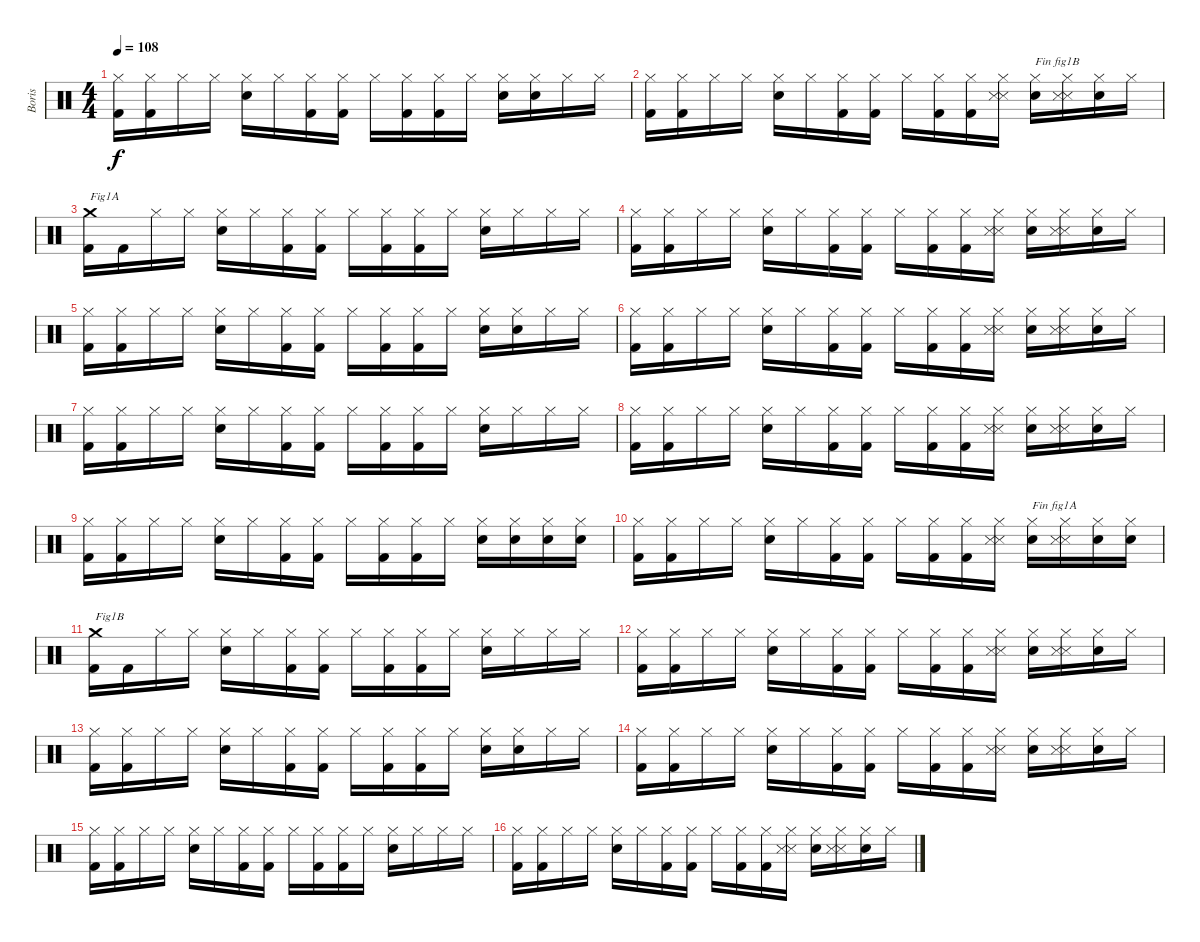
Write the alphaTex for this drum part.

\track ("Boris" "Boris") {instrument percussion}
\staff {score}
\articulation defaults
\ts (4 4)
\tempo 108
\clef neutral
\ks c
("Kick (hit) 2" "Hi-Hat (closed)").16{dy f} ("Kick (hit) 2" "Hi-Hat (closed)").16 "Hi-Hat (closed)".16 "Hi-Hat (closed)".16 ("Electric Snare (hit)" "Hi-Hat (closed)").16 "Hi-Hat (closed)".16 ("Kick (hit) 2" "Hi-Hat (closed)").16 ("Kick (hit) 2" "Hi-Hat (closed)").16 "Hi-Hat (closed)".16 ("Kick (hit) 2" "Hi-Hat (closed)").16 ("Kick (hit) 2" "Hi-Hat (closed)").16 "Hi-Hat (closed)".16 ("Electric Snare (hit)" "Hi-Hat (closed)").16 ("Electric Snare (hit)" "Hi-Hat (closed)").16 "Hi-Hat (closed)".16 "Hi-Hat (closed)".16 |
("Kick (hit) 2" "Hi-Hat (closed)").16 ("Kick (hit) 2" "Hi-Hat (closed)").16 "Hi-Hat (closed)".16 "Hi-Hat (closed)".16 ("Electric Snare (hit)" "Hi-Hat (closed)").16 "Hi-Hat (closed)".16 ("Kick (hit) 2" "Hi-Hat (closed)").16 ("Kick (hit) 2" "Hi-Hat (closed)").16 "Hi-Hat (closed)".16 ("Kick (hit) 2" "Hi-Hat (closed)").16 ("Kick (hit) 2" "Hi-Hat (closed)").16 ("Metronome (hit)" "Snare (side stick) 3" "Hi-Hat (closed)").16 ("Electric Snare (hit)" "Hi-Hat (closed)").16{txt "Fin fig1B"} ("Metronome (hit)" "Snare (side stick) 3" "Hi-Hat (closed)").16 ("Electric Snare (hit)" "Hi-Hat (closed)").16 "Hi-Hat (closed)".16 |
("Kick (hit) 2" "Crash medium (hit)").16{txt "Fig1A"} "Kick (hit) 2".16 "Hi-Hat (closed)".16 "Hi-Hat (closed)".16 ("Electric Snare (hit)" "Hi-Hat (closed)").16 "Hi-Hat (closed)".16 ("Kick (hit) 2" "Hi-Hat (closed)").16 ("Kick (hit) 2" "Hi-Hat (closed)").16 "Hi-Hat (closed)".16 ("Kick (hit) 2" "Hi-Hat (closed)").16 ("Kick (hit) 2" "Hi-Hat (closed)").16 "Hi-Hat (closed)".16 ("Electric Snare (hit)" "Hi-Hat (closed)").16 "Hi-Hat (closed)".16 "Hi-Hat (closed)".16 "Hi-Hat (closed)".16 |
("Kick (hit) 2" "Hi-Hat (closed)").16 ("Kick (hit) 2" "Hi-Hat (closed)").16 "Hi-Hat (closed)".16 "Hi-Hat (closed)".16 ("Electric Snare (hit)" "Hi-Hat (closed)").16 "Hi-Hat (closed)".16 ("Kick (hit) 2" "Hi-Hat (closed)").16 ("Kick (hit) 2" "Hi-Hat (closed)").16 "Hi-Hat (closed)".16 ("Kick (hit) 2" "Hi-Hat (closed)").16 ("Kick (hit) 2" "Hi-Hat (closed)").16 ("Metronome (hit)" "Snare (side stick) 3" "Hi-Hat (closed)").16 ("Electric Snare (hit)" "Hi-Hat (closed)").16 ("Metronome (hit)" "Snare (side stick) 3" "Hi-Hat (closed)").16 ("Electric Snare (hit)" "Hi-Hat (closed)").16 "Hi-Hat (closed)".16 |
("Kick (hit) 2" "Hi-Hat (closed)").16 ("Kick (hit) 2" "Hi-Hat (closed)").16 "Hi-Hat (closed)".16 "Hi-Hat (closed)".16 ("Electric Snare (hit)" "Hi-Hat (closed)").16 "Hi-Hat (closed)".16 ("Kick (hit) 2" "Hi-Hat (closed)").16 ("Kick (hit) 2" "Hi-Hat (closed)").16 "Hi-Hat (closed)".16 ("Kick (hit) 2" "Hi-Hat (closed)").16 ("Kick (hit) 2" "Hi-Hat (closed)").16 "Hi-Hat (closed)".16 ("Electric Snare (hit)" "Hi-Hat (closed)").16 ("Electric Snare (hit)" "Hi-Hat (closed)").16 "Hi-Hat (closed)".16 "Hi-Hat (closed)".16 |
("Kick (hit) 2" "Hi-Hat (closed)").16 ("Kick (hit) 2" "Hi-Hat (closed)").16 "Hi-Hat (closed)".16 "Hi-Hat (closed)".16 ("Electric Snare (hit)" "Hi-Hat (closed)").16 "Hi-Hat (closed)".16 ("Kick (hit) 2" "Hi-Hat (closed)").16 ("Kick (hit) 2" "Hi-Hat (closed)").16 "Hi-Hat (closed)".16 ("Kick (hit) 2" "Hi-Hat (closed)").16 ("Kick (hit) 2" "Hi-Hat (closed)").16 ("Metronome (hit)" "Snare (side stick) 3" "Hi-Hat (closed)").16 ("Electric Snare (hit)" "Hi-Hat (closed)").16 ("Metronome (hit)" "Snare (side stick) 3" "Hi-Hat (closed)").16 ("Electric Snare (hit)" "Hi-Hat (closed)").16 "Hi-Hat (closed)".16 |
("Kick (hit) 2" "Hi-Hat (closed)").16 ("Kick (hit) 2" "Hi-Hat (closed)").16 "Hi-Hat (closed)".16 "Hi-Hat (closed)".16 ("Electric Snare (hit)" "Hi-Hat (closed)").16 "Hi-Hat (closed)".16 ("Kick (hit) 2" "Hi-Hat (closed)").16 ("Kick (hit) 2" "Hi-Hat (closed)").16 "Hi-Hat (closed)".16 ("Kick (hit) 2" "Hi-Hat (closed)").16 ("Kick (hit) 2" "Hi-Hat (closed)").16 "Hi-Hat (closed)".16 ("Electric Snare (hit)" "Hi-Hat (closed)").16 "Hi-Hat (closed)".16 "Hi-Hat (closed)".16 "Hi-Hat (closed)".16 |
("Kick (hit) 2" "Hi-Hat (closed)").16 ("Kick (hit) 2" "Hi-Hat (closed)").16 "Hi-Hat (closed)".16 "Hi-Hat (closed)".16 ("Electric Snare (hit)" "Hi-Hat (closed)").16 "Hi-Hat (closed)".16 ("Kick (hit) 2" "Hi-Hat (closed)").16 ("Kick (hit) 2" "Hi-Hat (closed)").16 "Hi-Hat (closed)".16 ("Kick (hit) 2" "Hi-Hat (closed)").16 ("Kick (hit) 2" "Hi-Hat (closed)").16 ("Metronome (hit)" "Snare (side stick) 3" "Hi-Hat (closed)").16 ("Electric Snare (hit)" "Hi-Hat (closed)").16 ("Metronome (hit)" "Snare (side stick) 3" "Hi-Hat (closed)").16 ("Electric Snare (hit)" "Hi-Hat (closed)").16 "Hi-Hat (closed)".16 |
("Kick (hit) 2" "Hi-Hat (closed)").16 ("Kick (hit) 2" "Hi-Hat (closed)").16 "Hi-Hat (closed)".16 "Hi-Hat (closed)".16 ("Electric Snare (hit)" "Hi-Hat (closed)").16 "Hi-Hat (closed)".16 ("Kick (hit) 2" "Hi-Hat (closed)").16 ("Kick (hit) 2" "Hi-Hat (closed)").16 "Hi-Hat (closed)".16 ("Kick (hit) 2" "Hi-Hat (closed)").16 ("Kick (hit) 2" "Hi-Hat (closed)").16 "Hi-Hat (closed)".16 ("Electric Snare (hit)" "Hi-Hat (closed)").16 ("Electric Snare (hit)" "Hi-Hat (closed)").16 ("Electric Snare (hit)" "Hi-Hat (closed)").16 ("Electric Snare (hit)" "Hi-Hat (closed)").16 |
("Kick (hit) 2" "Hi-Hat (closed)").16 ("Kick (hit) 2" "Hi-Hat (closed)").16 "Hi-Hat (closed)".16 "Hi-Hat (closed)".16 ("Electric Snare (hit)" "Hi-Hat (closed)").16 "Hi-Hat (closed)".16 ("Kick (hit) 2" "Hi-Hat (closed)").16 ("Kick (hit) 2" "Hi-Hat (closed)").16 "Hi-Hat (closed)".16 ("Kick (hit) 2" "Hi-Hat (closed)").16 ("Kick (hit) 2" "Hi-Hat (closed)").16 ("Metronome (hit)" "Snare (side stick) 3" "Hi-Hat (closed)").16 ("Electric Snare (hit)" "Hi-Hat (closed)").16{txt "Fin fig1A"} ("Metronome (hit)" "Snare (side stick) 3" "Hi-Hat (closed)").16 ("Electric Snare (hit)" "Hi-Hat (closed)").16 ("Electric Snare (hit)" "Hi-Hat (closed)").16 |
("Kick (hit) 2" "Crash medium (hit)").16{txt "Fig1B"} "Kick (hit) 2".16 "Hi-Hat (closed)".16 "Hi-Hat (closed)".16 ("Electric Snare (hit)" "Hi-Hat (closed)").16 "Hi-Hat (closed)".16 ("Kick (hit) 2" "Hi-Hat (closed)").16 ("Kick (hit) 2" "Hi-Hat (closed)").16 "Hi-Hat (closed)".16 ("Kick (hit) 2" "Hi-Hat (closed)").16 ("Kick (hit) 2" "Hi-Hat (closed)").16 "Hi-Hat (closed)".16 ("Electric Snare (hit)" "Hi-Hat (closed)").16 "Hi-Hat (closed)".16 "Hi-Hat (closed)".16 "Hi-Hat (closed)".16 |
("Kick (hit) 2" "Hi-Hat (closed)").16 ("Kick (hit) 2" "Hi-Hat (closed)").16 "Hi-Hat (closed)".16 "Hi-Hat (closed)".16 ("Electric Snare (hit)" "Hi-Hat (closed)").16 "Hi-Hat (closed)".16 ("Kick (hit) 2" "Hi-Hat (closed)").16 ("Kick (hit) 2" "Hi-Hat (closed)").16 "Hi-Hat (closed)".16 ("Kick (hit) 2" "Hi-Hat (closed)").16 ("Kick (hit) 2" "Hi-Hat (closed)").16 ("Metronome (hit)" "Snare (side stick) 3" "Hi-Hat (closed)").16 ("Electric Snare (hit)" "Hi-Hat (closed)").16 ("Metronome (hit)" "Snare (side stick) 3" "Hi-Hat (closed)").16 ("Electric Snare (hit)" "Hi-Hat (closed)").16 "Hi-Hat (closed)".16 |
("Kick (hit) 2" "Hi-Hat (closed)").16 ("Kick (hit) 2" "Hi-Hat (closed)").16 "Hi-Hat (closed)".16 "Hi-Hat (closed)".16 ("Electric Snare (hit)" "Hi-Hat (closed)").16 "Hi-Hat (closed)".16 ("Kick (hit) 2" "Hi-Hat (closed)").16 ("Kick (hit) 2" "Hi-Hat (closed)").16 "Hi-Hat (closed)".16 ("Kick (hit) 2" "Hi-Hat (closed)").16 ("Kick (hit) 2" "Hi-Hat (closed)").16 "Hi-Hat (closed)".16 ("Electric Snare (hit)" "Hi-Hat (closed)").16 ("Electric Snare (hit)" "Hi-Hat (closed)").16 "Hi-Hat (closed)".16 "Hi-Hat (closed)".16 |
("Kick (hit) 2" "Hi-Hat (closed)").16 ("Kick (hit) 2" "Hi-Hat (closed)").16 "Hi-Hat (closed)".16 "Hi-Hat (closed)".16 ("Electric Snare (hit)" "Hi-Hat (closed)").16 "Hi-Hat (closed)".16 ("Kick (hit) 2" "Hi-Hat (closed)").16 ("Kick (hit) 2" "Hi-Hat (closed)").16 "Hi-Hat (closed)".16 ("Kick (hit) 2" "Hi-Hat (closed)").16 ("Kick (hit) 2" "Hi-Hat (closed)").16 ("Metronome (hit)" "Snare (side stick) 3" "Hi-Hat (closed)").16 ("Electric Snare (hit)" "Hi-Hat (closed)").16 ("Metronome (hit)" "Snare (side stick) 3" "Hi-Hat (closed)").16 ("Electric Snare (hit)" "Hi-Hat (closed)").16 "Hi-Hat (closed)".16 |
("Kick (hit) 2" "Hi-Hat (closed)").16 ("Kick (hit) 2" "Hi-Hat (closed)").16 "Hi-Hat (closed)".16 "Hi-Hat (closed)".16 ("Electric Snare (hit)" "Hi-Hat (closed)").16 "Hi-Hat (closed)".16 ("Kick (hit) 2" "Hi-Hat (closed)").16 ("Kick (hit) 2" "Hi-Hat (closed)").16 "Hi-Hat (closed)".16 ("Kick (hit) 2" "Hi-Hat (closed)").16 ("Kick (hit) 2" "Hi-Hat (closed)").16 "Hi-Hat (closed)".16 ("Electric Snare (hit)" "Hi-Hat (closed)").16 "Hi-Hat (closed)".16 "Hi-Hat (closed)".16 "Hi-Hat (closed)".16 |
("Kick (hit) 2" "Hi-Hat (closed)").16 ("Kick (hit) 2" "Hi-Hat (closed)").16 "Hi-Hat (closed)".16 "Hi-Hat (closed)".16 ("Electric Snare (hit)" "Hi-Hat (closed)").16 "Hi-Hat (closed)".16 ("Kick (hit) 2" "Hi-Hat (closed)").16 ("Kick (hit) 2" "Hi-Hat (closed)").16 "Hi-Hat (closed)".16 ("Kick (hit) 2" "Hi-Hat (closed)").16 ("Kick (hit) 2" "Hi-Hat (closed)").16 ("Metronome (hit)" "Snare (side stick) 3" "Hi-Hat (closed)").16 ("Electric Snare (hit)" "Hi-Hat (closed)").16 ("Metronome (hit)" "Snare (side stick) 3" "Hi-Hat (closed)").16 ("Electric Snare (hit)" "Hi-Hat (closed)").16 "Hi-Hat (closed)".16
